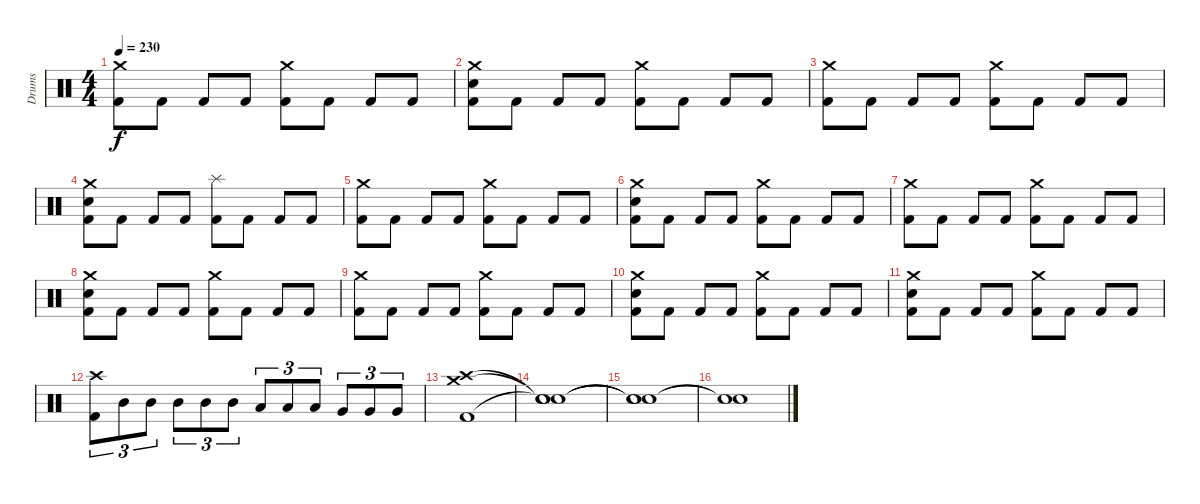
\track ("Drums" "Drums") {instrument percussion}
\staff {score}
\articulation defaults
\ts (4 4)
\tempo 230
\clef neutral
\ks c
("Crash medium (hit)" "Kick (hit) 2").8{dy f} "Kick (hit) 2".8 "Kick (hit) 2".8 "Kick (hit) 2".8 ("Crash medium (hit)" "Kick (hit) 2").8 "Kick (hit) 2".8 "Kick (hit) 2".8 "Kick (hit) 2".8 |
("Crash medium (hit)" "Electric Snare (hit)" "Kick (hit) 2").8 "Kick (hit) 2".8 "Kick (hit) 2".8 "Kick (hit) 2".8 ("Crash medium (hit)" "Kick (hit) 2").8 "Kick (hit) 2".8 "Kick (hit) 2".8 "Kick (hit) 2".8 |
("Crash medium (hit)" "Kick (hit) 2").8 "Kick (hit) 2".8 "Kick (hit) 2".8 "Kick (hit) 2".8 ("Crash medium (hit)" "Kick (hit) 2").8 "Kick (hit) 2".8 "Kick (hit) 2".8 "Kick (hit) 2".8 |
("Crash medium (hit)" "Electric Snare (hit)" "Kick (hit) 2").8 "Kick (hit) 2".8 "Kick (hit) 2".8 "Kick (hit) 2".8 ("Splash (hit)" "Kick (hit) 2").8 "Kick (hit) 2".8 "Kick (hit) 2".8 "Kick (hit) 2".8 |
("Crash medium (hit)" "Kick (hit) 2").8 "Kick (hit) 2".8 "Kick (hit) 2".8 "Kick (hit) 2".8 ("Crash medium (hit)" "Kick (hit) 2").8 "Kick (hit) 2".8 "Kick (hit) 2".8 "Kick (hit) 2".8 |
("Crash medium (hit)" "Electric Snare (hit)" "Kick (hit) 2").8 "Kick (hit) 2".8 "Kick (hit) 2".8 "Kick (hit) 2".8 ("Crash medium (hit)" "Kick (hit) 2").8 "Kick (hit) 2".8 "Kick (hit) 2".8 "Kick (hit) 2".8 |
("Crash medium (hit)" "Kick (hit) 2").8 "Kick (hit) 2".8 "Kick (hit) 2".8 "Kick (hit) 2".8 ("Crash medium (hit)" "Kick (hit) 2").8 "Kick (hit) 2".8 "Kick (hit) 2".8 "Kick (hit) 2".8 |
("Crash medium (hit)" "Electric Snare (hit)" "Kick (hit) 2").8 "Kick (hit) 2".8 "Kick (hit) 2".8 "Kick (hit) 2".8 ("Crash medium (hit)" "Kick (hit) 2").8 "Kick (hit) 2".8 "Kick (hit) 2".8 "Kick (hit) 2".8 |
("Crash medium (hit)" "Kick (hit) 2").8 "Kick (hit) 2".8 "Kick (hit) 2".8 "Kick (hit) 2".8 ("Crash medium (hit)" "Kick (hit) 2").8 "Kick (hit) 2".8 "Kick (hit) 2".8 "Kick (hit) 2".8 |
("Crash medium (hit)" "Electric Snare (hit)" "Kick (hit) 2").8 "Kick (hit) 2".8 "Kick (hit) 2".8 "Kick (hit) 2".8 ("Crash medium (hit)" "Kick (hit) 2").8 "Kick (hit) 2".8 "Kick (hit) 2".8 "Kick (hit) 2".8 |
("Crash medium (hit)" "Electric Snare (hit)" "Kick (hit) 2").8 "Kick (hit) 2".8 "Kick (hit) 2".8 "Kick (hit) 2".8 ("Crash medium (hit)" "Kick (hit) 2").8 "Kick (hit) 2".8 "Kick (hit) 2".8 "Kick (hit) 2".8 |
("Crash high (hit)" "Kick (hit) 2").8{tu (3 2)} "Mid Tom (hit)".8{tu (3 2)} "Mid Tom (hit)".8{tu (3 2)} "Mid Tom (hit)".8{tu (3 2)} "Mid Tom (hit)".8{tu (3 2)} "Mid Tom (hit)".8{tu (3 2)} "Low Tom (hit)".8{tu (3 2)} "Low Tom (hit)".8{tu (3 2)} "Low Tom (hit)".8{tu (3 2)} "Very Low Tom (hit)".8{tu (3 2)} "Very Low Tom (hit)".8{tu (3 2)} "Very Low Tom (hit)".8{tu (3 2)} |
("Crash medium (hit)" "Crash high (hit)" "Kick (hit) 2").1 |
("Snare (hit)"{t} "Snare (hit)"{t} "Snare (hit)"{t}).1 |
("Snare (hit)"{t} "Snare (hit)"{t} "Snare (hit)"{t}).1 |
("Snare (hit)"{t} "Snare (hit)"{t}).1
